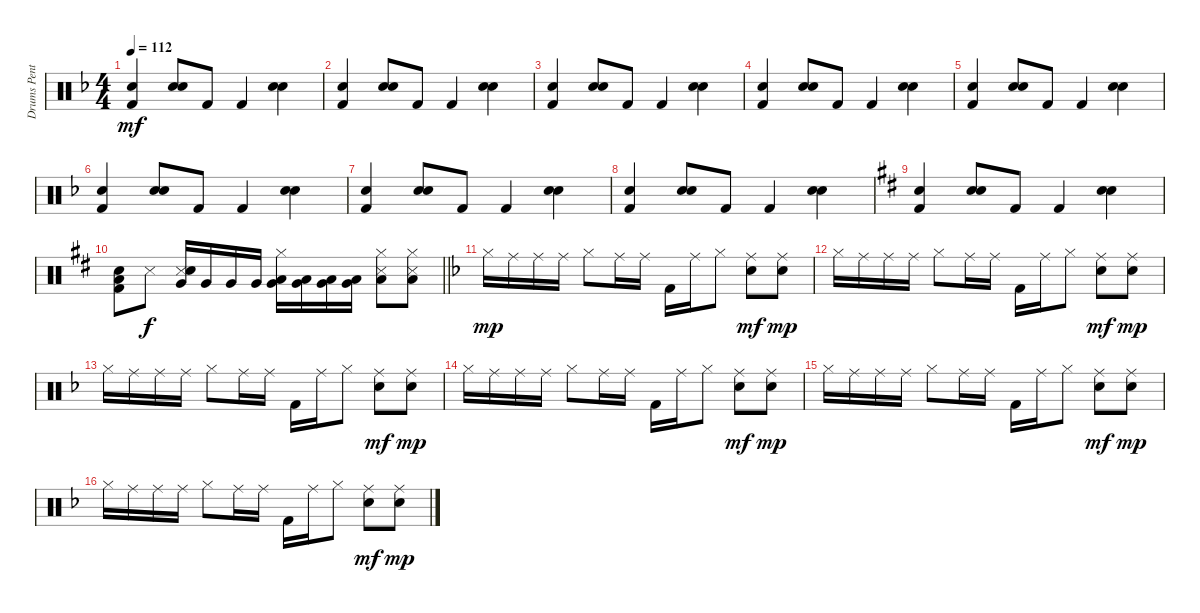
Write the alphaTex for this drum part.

\track ("Drums Pentti Glan" "Drums Pent") {mute instrument percussion}
\staff {score}
\articulation defaults
\ts (4 4)
\tempo 112
\clef neutral
\ks f
("Hand Clap (hit)" "Kick (hit) 2").4{dy mf} ("Electric Snare (hit)" "Snare (hit) 2").8 "Kick (hit) 2".8 "Kick (hit) 2".4 ("Electric Snare (hit)" "Snare (hit) 2").4 |
("Hand Clap (hit)" "Kick (hit) 2").4 ("Electric Snare (hit)" "Snare (hit) 2").8 "Kick (hit) 2".8 "Kick (hit) 2".4 ("Electric Snare (hit)" "Snare (hit) 2").4 |
("Hand Clap (hit)" "Kick (hit) 2").4 ("Electric Snare (hit)" "Snare (hit) 2").8 "Kick (hit) 2".8 "Kick (hit) 2".4 ("Electric Snare (hit)" "Snare (hit) 2").4 |
("Hand Clap (hit)" "Kick (hit) 2").4 ("Electric Snare (hit)" "Snare (hit) 2").8 "Kick (hit) 2".8 "Kick (hit) 2".4 ("Electric Snare (hit)" "Snare (hit) 2").4 |
("Hand Clap (hit)" "Kick (hit) 2").4 ("Electric Snare (hit)" "Snare (hit) 2").8 "Kick (hit) 2".8 "Kick (hit) 2".4 ("Electric Snare (hit)" "Snare (hit) 2").4 |
("Hand Clap (hit)" "Kick (hit) 2").4 ("Electric Snare (hit)" "Snare (hit) 2").8 "Kick (hit) 2".8 "Kick (hit) 2".4 ("Electric Snare (hit)" "Snare (hit) 2").4 |
("Hand Clap (hit)" "Kick (hit) 2").4 ("Electric Snare (hit)" "Snare (hit) 2").8 "Kick (hit) 2".8 "Kick (hit) 2".4 ("Electric Snare (hit)" "Snare (hit) 2").4 |
("Hand Clap (hit)" "Kick (hit) 2").4 ("Electric Snare (hit)" "Snare (hit) 2").8 "Kick (hit) 2".8 "Kick (hit) 2".4 ("Electric Snare (hit)" "Snare (hit) 2").4 |
\ks d
("Hand Clap (hit)" "Kick (hit) 2").4 ("Electric Snare (hit)" "Snare (hit) 2").8 "Kick (hit) 2".8 "Kick (hit) 2".4 ("Electric Snare (hit)" "Snare (hit) 2").4 |
\barLineRight lightlight
("Low Tom (hit)" "Hand Clap (hit)" "Kick (hit) 2").8 "Snare (side stick) 3".8{dy f} ("Snare (side stick) 3" "Very Low Tom (hit)" "Snare (hit) 2").16 "Very Low Tom (hit)".16 "Very Low Tom (hit)".16 "Very Low Tom (hit)".16 ("Low Tom (hit)" "Very Low Tom (hit)" "Hi-Hat (closed)").16 ("Low Tom (hit)" "Very Low Tom (hit)").16 ("Low Tom (hit)" "Very Low Tom (hit)").16 ("Low Tom (hit)" "Very Low Tom (hit)").16 ("Snare (side stick) 3" "Low Tom (hit)" "Hi-Hat (closed)").8 ("Snare (side stick) 3" "Low Tom (hit)" "Hi-Hat (closed)").8 |
\ks f "Hi-Hat (closed)".16{dy mp} "Ride (middle)".16 "Ride (middle)".16 "Ride (middle)".16 "Hi-Hat (closed)".8 "Ride (middle)".16 "Ride (middle)".16 "Kick (hit) 2".16 "Ride (middle)".16 "Hi-Hat (closed)".8
("Hand Clap (hit)" "Ride (middle)").8{dy mf} ("Hand Clap (hit)" "Ride (middle)").8{dy mp} |
"Hi-Hat (closed)".16 "Ride (middle)".16 "Ride (middle)".16 "Ride (middle)".16 "Hi-Hat (closed)".8 "Ride (middle)".16 "Ride (middle)".16 "Kick (hit) 2".16 "Ride (middle)".16 "Hi-Hat (closed)".8 ("Hand Clap (hit)" "Ride (middle)").8{dy mf} ("Hand Clap (hit)" "Ride (middle)").8{dy mp} |
"Hi-Hat (closed)".16 "Ride (middle)".16 "Ride (middle)".16 "Ride (middle)".16 "Hi-Hat (closed)".8 "Ride (middle)".16 "Ride (middle)".16 "Kick (hit) 2".16 "Ride (middle)".16 "Hi-Hat (closed)".8 ("Hand Clap (hit)" "Ride (middle)").8{dy mf} ("Hand Clap (hit)" "Ride (middle)").8{dy mp} |
"Hi-Hat (closed)".16 "Ride (middle)".16 "Ride (middle)".16 "Ride (middle)".16 "Hi-Hat (closed)".8 "Ride (middle)".16 "Ride (middle)".16 "Kick (hit) 2".16 "Ride (middle)".16 "Hi-Hat (closed)".8 ("Hand Clap (hit)" "Ride (middle)").8{dy mf} ("Hand Clap (hit)" "Ride (middle)").8{dy mp} |
"Hi-Hat (closed)".16 "Ride (middle)".16 "Ride (middle)".16 "Ride (middle)".16 "Hi-Hat (closed)".8 "Ride (middle)".16 "Ride (middle)".16 "Kick (hit) 2".16 "Ride (middle)".16 "Hi-Hat (closed)".8 ("Hand Clap (hit)" "Ride (middle)").8{dy mf} ("Hand Clap (hit)" "Ride (middle)").8{dy mp} |
"Hi-Hat (closed)".16 "Ride (middle)".16 "Ride (middle)".16 "Ride (middle)".16 "Hi-Hat (closed)".8 "Ride (middle)".16 "Ride (middle)".16 "Kick (hit) 2".16 "Ride (middle)".16 "Hi-Hat (closed)".8 ("Hand Clap (hit)" "Ride (middle)").8{dy mf} ("Hand Clap (hit)" "Ride (middle)").8{dy mp}
